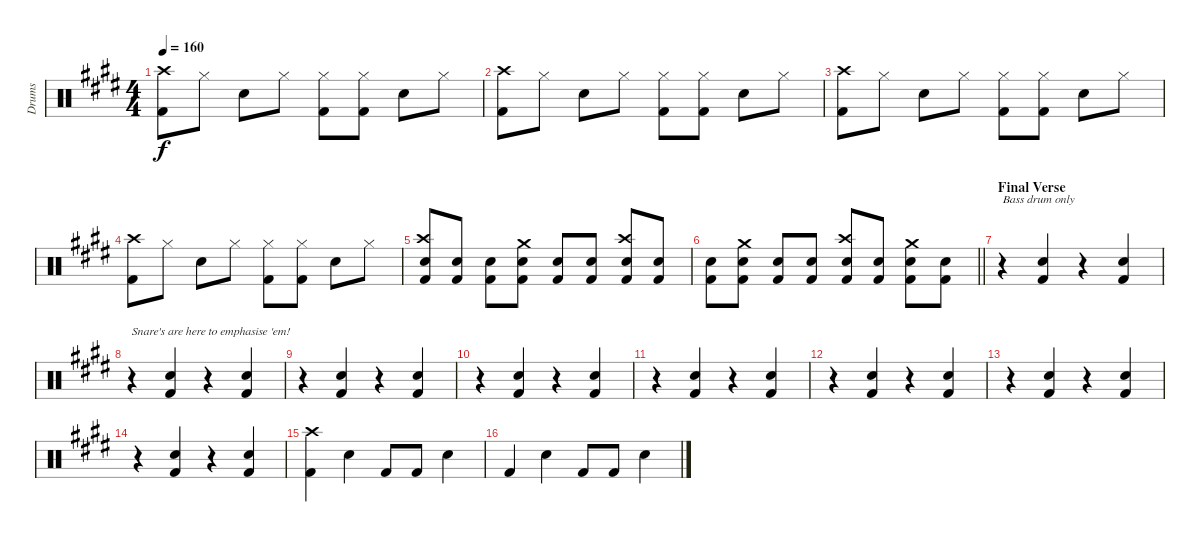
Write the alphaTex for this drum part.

\track ("Drums" "Drums") {instrument percussion}
\staff {score}
\articulation defaults
\ts (4 4)
\tempo 160
\clef neutral
\ks e
("Kick (hit) 2" "Crash high (hit)").8{dy f} "Hi-Hat (closed)".8 "Snare (hit) 2".8 "Hi-Hat (closed)".8 ("Kick (hit) 2" "Hi-Hat (closed)").8 ("Kick (hit) 2" "Hi-Hat (closed)").8 "Snare (hit) 2".8 "Hi-Hat (closed)".8 |
("Kick (hit) 2" "Crash high (hit)").8 "Hi-Hat (closed)".8 "Snare (hit) 2".8 "Hi-Hat (closed)".8 ("Kick (hit) 2" "Hi-Hat (closed)").8 ("Kick (hit) 2" "Hi-Hat (closed)").8 "Snare (hit) 2".8 "Hi-Hat (closed)".8 |
("Kick (hit) 2" "Crash high (hit)").8 "Hi-Hat (closed)".8 "Snare (hit) 2".8 "Hi-Hat (closed)".8 ("Kick (hit) 2" "Hi-Hat (closed)").8 ("Kick (hit) 2" "Hi-Hat (closed)").8 "Snare (hit) 2".8 "Hi-Hat (closed)".8 |
("Kick (hit) 2" "Crash high (hit)").8 "Hi-Hat (closed)".8 "Snare (hit) 2".8 "Hi-Hat (closed)".8 ("Kick (hit) 2" "Hi-Hat (closed)").8 ("Kick (hit) 2" "Hi-Hat (closed)").8 "Snare (hit) 2".8 "Hi-Hat (closed)".8 |
("Kick (hit) 2" "Crash high (hit)" "Snare (hit) 2").8 ("Kick (hit) 2" "Snare (hit) 2").8 ("Kick (hit) 2" "Snare (hit) 2").8 ("Kick (hit) 2" "Crash medium (hit)" "Snare (hit) 2").8 ("Kick (hit) 2" "Snare (hit) 2").8 ("Kick (hit) 2" "Snare (hit) 2").8 ("Kick (hit) 2" "Crash high (hit)" "Snare (hit) 2").8 ("Kick (hit) 2" "Snare (hit) 2").8 |
\barLineRight lightlight
("Kick (hit) 2" "Snare (hit) 2").8 ("Kick (hit) 2" "Crash medium (hit)" "Snare (hit) 2").8 ("Kick (hit) 2" "Snare (hit) 2").8 ("Kick (hit) 2" "Snare (hit) 2").8 ("Kick (hit) 2" "Crash high (hit)" "Snare (hit) 2").8 ("Kick (hit) 2" "Snare (hit) 2").8 ("Kick (hit) 2" "Crash medium (hit)" "Snare (hit) 2").8 ("Kick (hit) 2" "Snare (hit) 2").8 |
\section ("" "Final Verse")
r.4{txt "Bass drum only"} ("Kick (hit) 2" "Snare (hit) 2").4 r.4 ("Kick (hit) 2" "Snare (hit) 2").4 |
r.4{txt "Snare's are here to emphasise 'em!"} ("Kick (hit) 2" "Snare (hit) 2").4 r.4 ("Kick (hit) 2" "Snare (hit) 2").4 |
r.4 ("Kick (hit) 2" "Snare (hit) 2").4 r.4 ("Kick (hit) 2" "Snare (hit) 2").4 |
r.4 ("Kick (hit) 2" "Snare (hit) 2").4 r.4 ("Kick (hit) 2" "Snare (hit) 2").4 |
r.4 ("Kick (hit) 2" "Snare (hit) 2").4 r.4 ("Kick (hit) 2" "Snare (hit) 2").4 |
r.4 ("Kick (hit) 2" "Snare (hit) 2").4 r.4 ("Kick (hit) 2" "Snare (hit) 2").4 |
r.4 ("Kick (hit) 2" "Snare (hit) 2").4 r.4 ("Kick (hit) 2" "Snare (hit) 2").4 |
r.4 ("Kick (hit) 2" "Snare (hit) 2").4 r.4 ("Kick (hit) 2" "Snare (hit) 2").4 |
("Kick (hit) 2" "Crash high (hit)").4 "Snare (hit) 2".4 "Kick (hit) 2".8 "Kick (hit) 2".8 "Snare (hit) 2".4 |
"Kick (hit) 2".4 "Snare (hit) 2".4 "Kick (hit) 2".8 "Kick (hit) 2".8 "Snare (hit) 2".4
